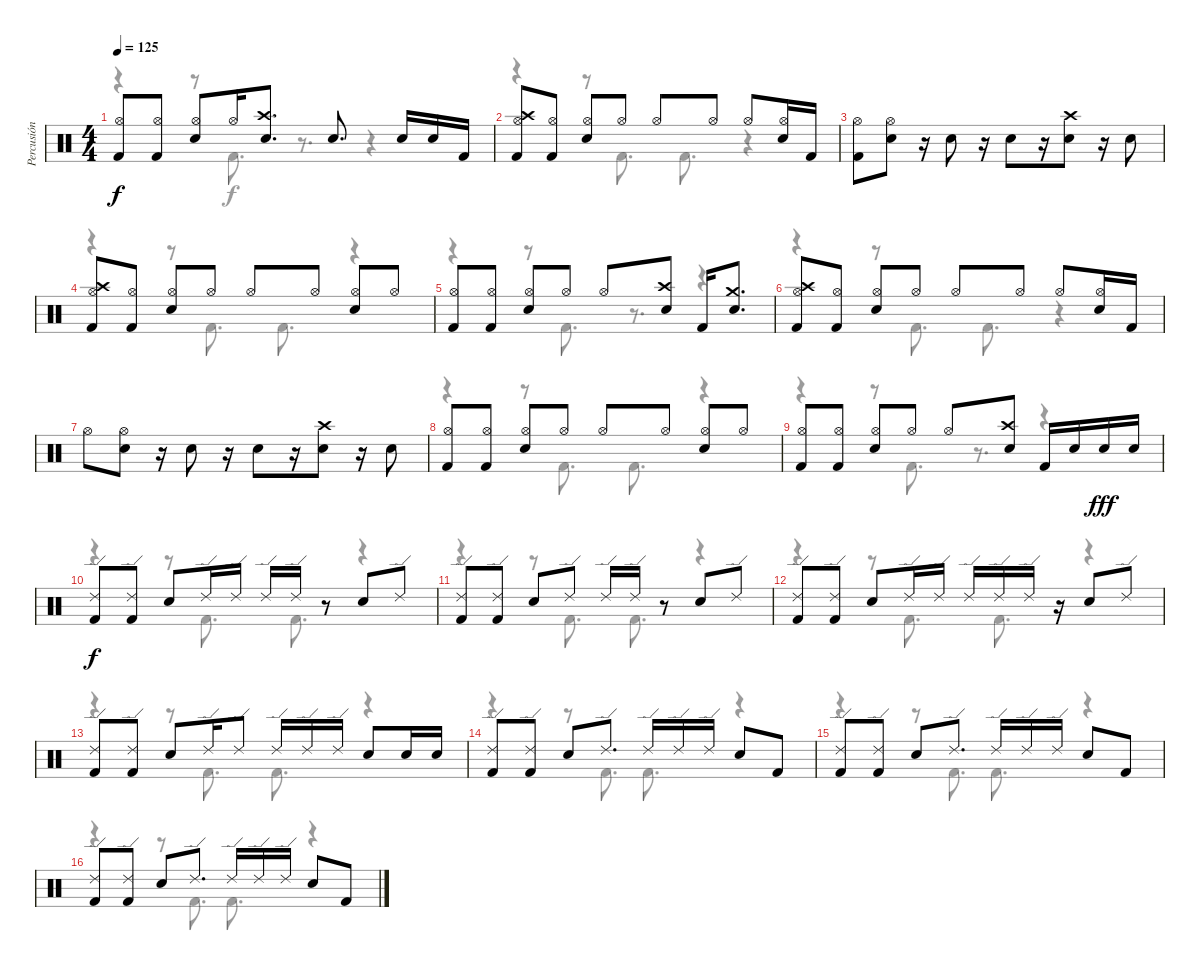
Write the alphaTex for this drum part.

\track ("Percusión" "Percusión") {instrument percussion}
\staff {score}
\articulation defaults
\voice
\ts (4 4)
\tempo 125
\clef neutral
\ks c
("Hi-Hat (open)" "Kick (hit) 2").8{dy f} ("Hi-Hat (open)" "Kick (hit) 2").8 ("Hi-Hat (open)" "Electric Snare (hit)").8 "Hi-Hat (open)".16 ("Crash high (hit)" "Electric Snare (hit)").8{d} "Electric Snare (hit)".8{d} "Electric Snare (hit)".16 "Electric Snare (hit)".16 "Kick (hit) 2".16 |
("Hi-Hat (open)" "Kick (hit) 2" "Crash high (hit)").8 ("Hi-Hat (open)" "Kick (hit) 2").8 ("Hi-Hat (open)" "Electric Snare (hit)").8 "Hi-Hat (open)".8 "Hi-Hat (open)".8 "Hi-Hat (open)".8 "Hi-Hat (open)".8 ("Hi-Hat (open)" "Electric Snare (hit)").16 "Kick (hit) 2".16 |
("Hi-Hat (open)" "Kick (hit) 2").8 ("Hi-Hat (open)" "Electric Snare (hit)").8 r.16 "Electric Snare (hit)".8 r.16 "Electric Snare (hit)".8 r.16 ("Crash high (hit)" "Electric Snare (hit)").8 r.16 "Electric Snare (hit)".8 |
("Hi-Hat (open)" "Kick (hit) 2" "Crash high (hit)").8 ("Hi-Hat (open)" "Kick (hit) 2").8 ("Hi-Hat (open)" "Electric Snare (hit)").8 "Hi-Hat (open)".8 "Hi-Hat (open)".8 "Hi-Hat (open)".8 ("Hi-Hat (open)" "Electric Snare (hit)").8 "Hi-Hat (open)".8 |
("Hi-Hat (open)" "Kick (hit) 2").8 ("Hi-Hat (open)" "Kick (hit) 2").8 ("Hi-Hat (open)" "Electric Snare (hit)").8 "Hi-Hat (open)".8 "Hi-Hat (open)".8 ("Crash high (hit)" "Electric Snare (hit)").8 "Kick (hit) 2".16 ("Crash medium (hit)" "Electric Snare (hit)").8{d} |
("Hi-Hat (open)" "Kick (hit) 2" "Crash high (hit)").8 ("Hi-Hat (open)" "Kick (hit) 2").8 ("Hi-Hat (open)" "Electric Snare (hit)").8 "Hi-Hat (open)".8 "Hi-Hat (open)".8 "Hi-Hat (open)".8 "Hi-Hat (open)".8 ("Hi-Hat (open)" "Electric Snare (hit)").16 "Kick (hit) 2".16 |
"Hi-Hat (open)".8 ("Hi-Hat (open)" "Electric Snare (hit)").8 r.16 "Electric Snare (hit)".8 r.16 "Electric Snare (hit)".8 r.16 ("Crash high (hit)" "Electric Snare (hit)").8 r.16 "Electric Snare (hit)".8 |
("Hi-Hat (open)" "Kick (hit) 2").8 ("Hi-Hat (open)" "Kick (hit) 2").8 ("Hi-Hat (open)" "Electric Snare (hit)").8 "Hi-Hat (open)".8 "Hi-Hat (open)".8 "Hi-Hat (open)".8 ("Hi-Hat (open)" "Electric Snare (hit)").8 "Hi-Hat (open)".8 |
("Hi-Hat (open)" "Kick (hit) 2").8 ("Hi-Hat (open)" "Kick (hit) 2").8 ("Hi-Hat (open)" "Electric Snare (hit)").8 "Hi-Hat (open)".8 "Hi-Hat (open)".8 ("Crash high (hit)" "Electric Snare (hit)").8 "Kick (hit) 2".16 "Electric Snare (hit)".16 "Electric Snare (hit)".16{dy fff} "Electric Snare (hit)".16 |
("Ride (edge) 2" "Kick (hit) 2").8{dy f} ("Ride (edge) 2" "Kick (hit) 2").8 "Electric Snare (hit)".8 "Ride (edge) 2".16 "Ride (edge) 2".16 "Ride (edge) 2".16 "Ride (edge) 2".16 r.8 "Electric Snare (hit)".8 "Ride (edge) 2".8 |
("Ride (edge) 2" "Kick (hit) 2").8 ("Ride (edge) 2" "Kick (hit) 2").8 "Electric Snare (hit)".8 "Ride (edge) 2".8 "Ride (edge) 2".16 "Ride (edge) 2".16 r.8 "Electric Snare (hit)".8 "Ride (edge) 2".8 |
("Ride (edge) 2" "Kick (hit) 2").8 ("Ride (edge) 2" "Kick (hit) 2").8 "Electric Snare (hit)".8 "Ride (edge) 2".16 "Ride (edge) 2".16 "Ride (edge) 2".16 "Ride (edge) 2".16 "Ride (edge) 2".16 r.16 "Electric Snare (hit)".8 "Ride (edge) 2".8 |
("Ride (edge) 2" "Kick (hit) 2").8 ("Ride (edge) 2" "Kick (hit) 2").8 "Electric Snare (hit)".8 "Ride (edge) 2".16 "Ride (edge) 2".8 "Ride (edge) 2".16 "Ride (edge) 2".16 "Ride (edge) 2".16 "Electric Snare (hit)".8 "Electric Snare (hit)".16 "Electric Snare (hit)".16 |
("Ride (edge) 2" "Kick (hit) 2").8 ("Ride (edge) 2" "Kick (hit) 2").8 "Electric Snare (hit)".8 "Ride (edge) 2".8{d} "Ride (edge) 2".16 "Ride (edge) 2".16 "Ride (edge) 2".16 "Electric Snare (hit)".8 "Kick (hit) 2".8 |
("Ride (edge) 2" "Kick (hit) 2").8 ("Ride (edge) 2" "Kick (hit) 2").8 "Electric Snare (hit)".8 "Ride (edge) 2".8{d} "Ride (edge) 2".16 "Ride (edge) 2".16 "Ride (edge) 2".16 "Electric Snare (hit)".8 "Kick (hit) 2".8 |
("Ride (edge) 2" "Kick (hit) 2").8 ("Ride (edge) 2" "Kick (hit) 2").8 "Electric Snare (hit)".8 "Ride (edge) 2".8{d} "Ride (edge) 2".16 "Ride (edge) 2".16 "Ride (edge) 2".16 "Electric Snare (hit)".8 "Kick (hit) 2".8
\voice
\clef neutral
\ottava regular
\simile none
\ks c
r.4{dy f} r.8 "Kick (hit) 2".8{d} r.8{d} r.4 |
r.4 r.8 "Kick (hit) 2".8{d} "Kick (hit) 2".8{d} r.4 |
|
r.4 r.8 "Kick (hit) 2".8{d} "Kick (hit) 2".8{d} r.4 |
r.4 r.8 "Kick (hit) 2".8{d} r.8{d} r.4 |
r.4 r.8 "Kick (hit) 2".8{d} "Kick (hit) 2".8{d} r.4 |
|
r.4 r.8 "Kick (hit) 2".8{d} "Kick (hit) 2".8{d} r.4 |
r.4 r.8 "Kick (hit) 2".8{d} r.8{d} r.4 |
r.4 r.8 "Kick (hit) 2".8{d} "Kick (hit) 2".8{d} r.4 |
r.4 r.8 "Kick (hit) 2".8{d} "Kick (hit) 2".8{d} r.4 |
r.4 r.8 "Kick (hit) 2".8{d} "Kick (hit) 2".8{d} r.4 |
r.4 r.8 "Kick (hit) 2".8{d} "Kick (hit) 2".8{d} r.4 |
r.4 r.8 "Kick (hit) 2".8{d} "Kick (hit) 2".8{d} r.4 |
r.4 r.8 "Kick (hit) 2".8{d} "Kick (hit) 2".8{d} r.4 |
r.4 r.8 "Kick (hit) 2".8{d} "Kick (hit) 2".8{d} r.4
